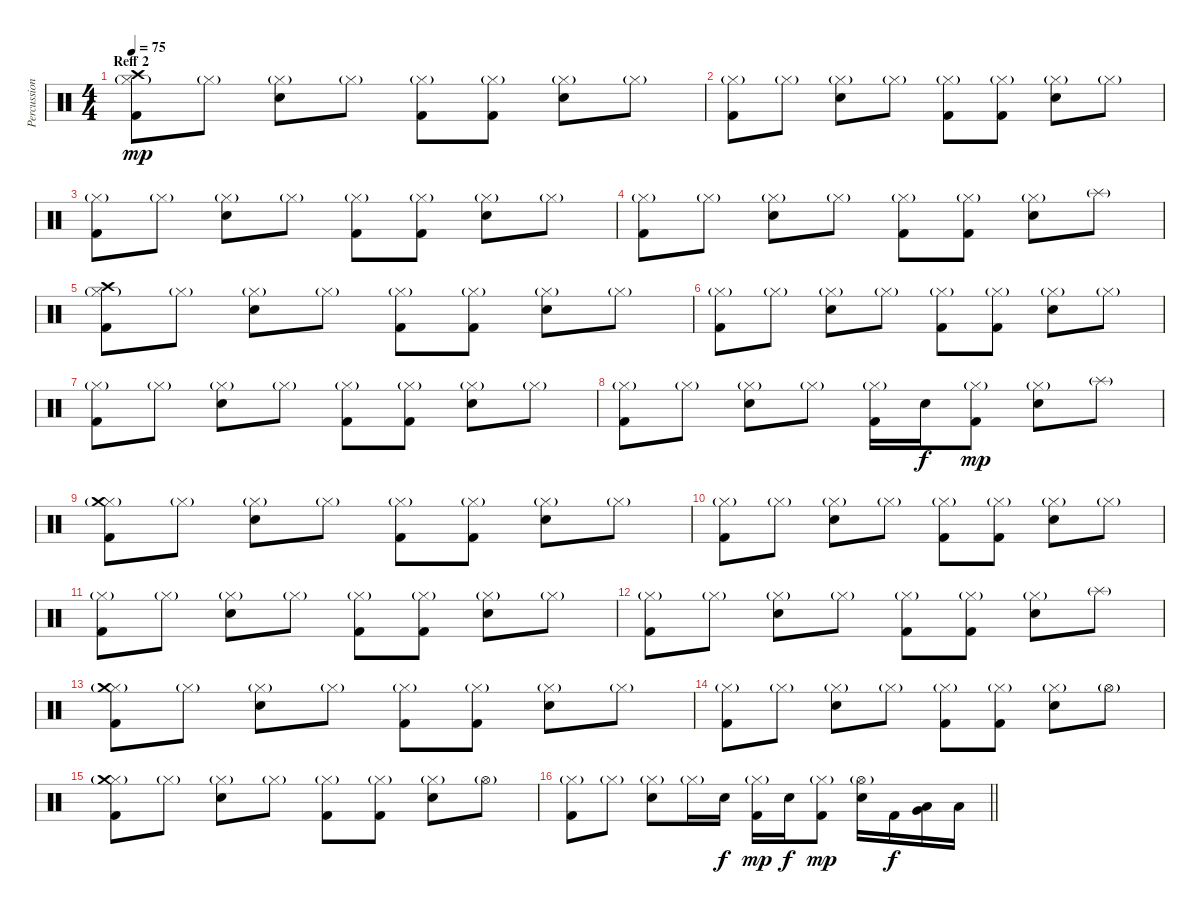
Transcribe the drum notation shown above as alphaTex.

\track ("Percussion" "Percussion") {instrument percussion}
\staff {score}
\articulation defaults
\ts (4 4)
\section ("" "Reff 2")
\tempo 75
\clef neutral
\ks c
("Hi-Hat (closed)"{g} "Crash high (hit)" "Kick (hit) 2").8{dy mp} "Hi-Hat (closed)"{g}.8 ("Hi-Hat (closed)"{g} "Electric Snare (hit)").8 "Hi-Hat (closed)"{g}.8 ("Hi-Hat (closed)"{g} "Kick (hit) 2").8 ("Hi-Hat (closed)"{g} "Kick (hit) 2").8 ("Hi-Hat (closed)"{g} "Electric Snare (hit)").8 "Hi-Hat (closed)"{g}.8 |
("Hi-Hat (closed)"{g} "Kick (hit) 2").8 "Hi-Hat (closed)"{g}.8 ("Hi-Hat (closed)"{g} "Electric Snare (hit)").8 "Hi-Hat (closed)"{g}.8 ("Hi-Hat (closed)"{g} "Kick (hit) 2").8 ("Hi-Hat (closed)"{g} "Kick (hit) 2").8 ("Hi-Hat (closed)"{g} "Electric Snare (hit)").8 "Hi-Hat (closed)"{g}.8 |
("Hi-Hat (closed)"{g} "Kick (hit) 2").8 "Hi-Hat (closed)"{g}.8 ("Hi-Hat (closed)"{g} "Electric Snare (hit)").8 "Hi-Hat (closed)"{g}.8 ("Hi-Hat (closed)"{g} "Kick (hit) 2").8 ("Hi-Hat (closed)"{g} "Kick (hit) 2").8 ("Hi-Hat (closed)"{g} "Electric Snare (hit)").8 "Hi-Hat (closed)"{g}.8 |
("Hi-Hat (closed)"{g} "Kick (hit) 2").8 "Hi-Hat (closed)"{g}.8 ("Hi-Hat (closed)"{g} "Electric Snare (hit)").8 "Hi-Hat (closed)"{g}.8 ("Hi-Hat (closed)"{g} "Kick (hit) 2").8 ("Hi-Hat (closed)"{g} "Kick (hit) 2").8 ("Hi-Hat (closed)"{g} "Electric Snare (hit)").8 "Splash (hit)"{g}.8 |
("Hi-Hat (closed)"{g} "Crash high (hit)" "Kick (hit) 2").8 "Hi-Hat (closed)"{g}.8 ("Hi-Hat (closed)"{g} "Electric Snare (hit)").8 "Hi-Hat (closed)"{g}.8 ("Hi-Hat (closed)"{g} "Kick (hit) 2").8 ("Hi-Hat (closed)"{g} "Kick (hit) 2").8 ("Hi-Hat (closed)"{g} "Electric Snare (hit)").8 "Hi-Hat (closed)"{g}.8 |
("Hi-Hat (closed)"{g} "Kick (hit) 2").8 "Hi-Hat (closed)"{g}.8 ("Hi-Hat (closed)"{g} "Electric Snare (hit)").8 "Hi-Hat (closed)"{g}.8 ("Hi-Hat (closed)"{g} "Kick (hit) 2").8 ("Hi-Hat (closed)"{g} "Kick (hit) 2").8 ("Hi-Hat (closed)"{g} "Electric Snare (hit)").8 "Hi-Hat (closed)"{g}.8 |
("Hi-Hat (closed)"{g} "Kick (hit) 2").8 "Hi-Hat (closed)"{g}.8 ("Hi-Hat (closed)"{g} "Electric Snare (hit)").8 "Hi-Hat (closed)"{g}.8 ("Hi-Hat (closed)"{g} "Kick (hit) 2").8 ("Hi-Hat (closed)"{g} "Kick (hit) 2").8 ("Hi-Hat (closed)"{g} "Electric Snare (hit)").8 "Hi-Hat (closed)"{g}.8 |
("Hi-Hat (closed)"{g} "Kick (hit) 2").8 "Hi-Hat (closed)"{g}.8 ("Hi-Hat (closed)"{g} "Electric Snare (hit)").8 "Hi-Hat (closed)"{g}.8 ("Hi-Hat (closed)"{g} "Kick (hit) 2").16 "Electric Snare (hit)".16{dy f} ("Hi-Hat (closed)"{g} "Kick (hit) 2").8{dy mp} ("Hi-Hat (closed)"{g} "Electric Snare (hit)").8 "Splash (hit)"{g}.8 |
("Hi-Hat (closed)"{g} "Crash medium (hit)" "Kick (hit) 2").8 "Hi-Hat (closed)"{g}.8 ("Hi-Hat (closed)"{g} "Electric Snare (hit)").8 "Hi-Hat (closed)"{g}.8 ("Hi-Hat (closed)"{g} "Kick (hit) 2").8 ("Hi-Hat (closed)"{g} "Kick (hit) 2").8 ("Hi-Hat (closed)"{g} "Electric Snare (hit)").8 "Hi-Hat (closed)"{g}.8 |
("Hi-Hat (closed)"{g} "Kick (hit) 2").8 "Hi-Hat (closed)"{g}.8 ("Hi-Hat (closed)"{g} "Electric Snare (hit)").8 "Hi-Hat (closed)"{g}.8 ("Hi-Hat (closed)"{g} "Kick (hit) 2").8 ("Hi-Hat (closed)"{g} "Kick (hit) 2").8 ("Hi-Hat (closed)"{g} "Electric Snare (hit)").8 "Hi-Hat (closed)"{g}.8 |
("Hi-Hat (closed)"{g} "Kick (hit) 2").8 "Hi-Hat (closed)"{g}.8 ("Hi-Hat (closed)"{g} "Electric Snare (hit)").8 "Hi-Hat (closed)"{g}.8 ("Hi-Hat (closed)"{g} "Kick (hit) 2").8 ("Hi-Hat (closed)"{g} "Kick (hit) 2").8 ("Hi-Hat (closed)"{g} "Electric Snare (hit)").8 "Hi-Hat (closed)"{g}.8 |
("Hi-Hat (closed)"{g} "Kick (hit) 2").8 "Hi-Hat (closed)"{g}.8 ("Hi-Hat (closed)"{g} "Electric Snare (hit)").8 "Hi-Hat (closed)"{g}.8 ("Hi-Hat (closed)"{g} "Kick (hit) 2").8 ("Hi-Hat (closed)"{g} "Kick (hit) 2").8 ("Hi-Hat (closed)"{g} "Electric Snare (hit)").8 "Splash (hit)"{g}.8 |
("Hi-Hat (closed)"{g} "Crash medium (hit)" "Kick (hit) 2").8 "Hi-Hat (closed)"{g}.8 ("Hi-Hat (closed)"{g} "Electric Snare (hit)").8 "Hi-Hat (closed)"{g}.8 ("Hi-Hat (closed)"{g} "Kick (hit) 2").8 ("Hi-Hat (closed)"{g} "Kick (hit) 2").8 ("Hi-Hat (closed)"{g} "Electric Snare (hit)").8 "Hi-Hat (closed)"{g}.8 |
("Hi-Hat (closed)"{g} "Kick (hit) 2").8 "Hi-Hat (closed)"{g}.8 ("Hi-Hat (closed)"{g} "Electric Snare (hit)").8 "Hi-Hat (closed)"{g}.8 ("Hi-Hat (closed)"{g} "Kick (hit) 2").8 ("Hi-Hat (closed)"{g} "Kick (hit) 2").8 ("Hi-Hat (closed)"{g} "Electric Snare (hit)").8 "Hi-Hat (open)"{g}.8 |
("Hi-Hat (closed)"{g} "Crash medium (hit)" "Kick (hit) 2").8 "Hi-Hat (closed)"{g}.8 ("Hi-Hat (closed)"{g} "Electric Snare (hit)").8 "Hi-Hat (closed)"{g}.8 ("Hi-Hat (closed)"{g} "Kick (hit) 2").8 ("Hi-Hat (closed)"{g} "Kick (hit) 2").8 ("Hi-Hat (closed)"{g} "Electric Snare (hit)").8 "Hi-Hat (open)"{g}.8 |
\barLineRight lightlight
("Hi-Hat (closed)"{g} "Kick (hit) 2").8 "Hi-Hat (closed)"{g}.8 ("Hi-Hat (closed)"{g} "Electric Snare (hit)").8 "Hi-Hat (closed)"{g}.16 "Electric Snare (hit)".16{dy f} ("Hi-Hat (closed)"{g} "Kick (hit) 2").16{dy mp} "Electric Snare (hit)".16{dy f} ("Hi-Hat (closed)"{g} "Kick (hit) 2").8{dy mp} ("Hi-Hat (open)"{g} "Electric Snare (hit)").16 "Kick (hit) 2".16{dy f} ("Low Tom (hit)" "Very Low Tom (hit)").16 "Low Floor Tom (hit)".16
